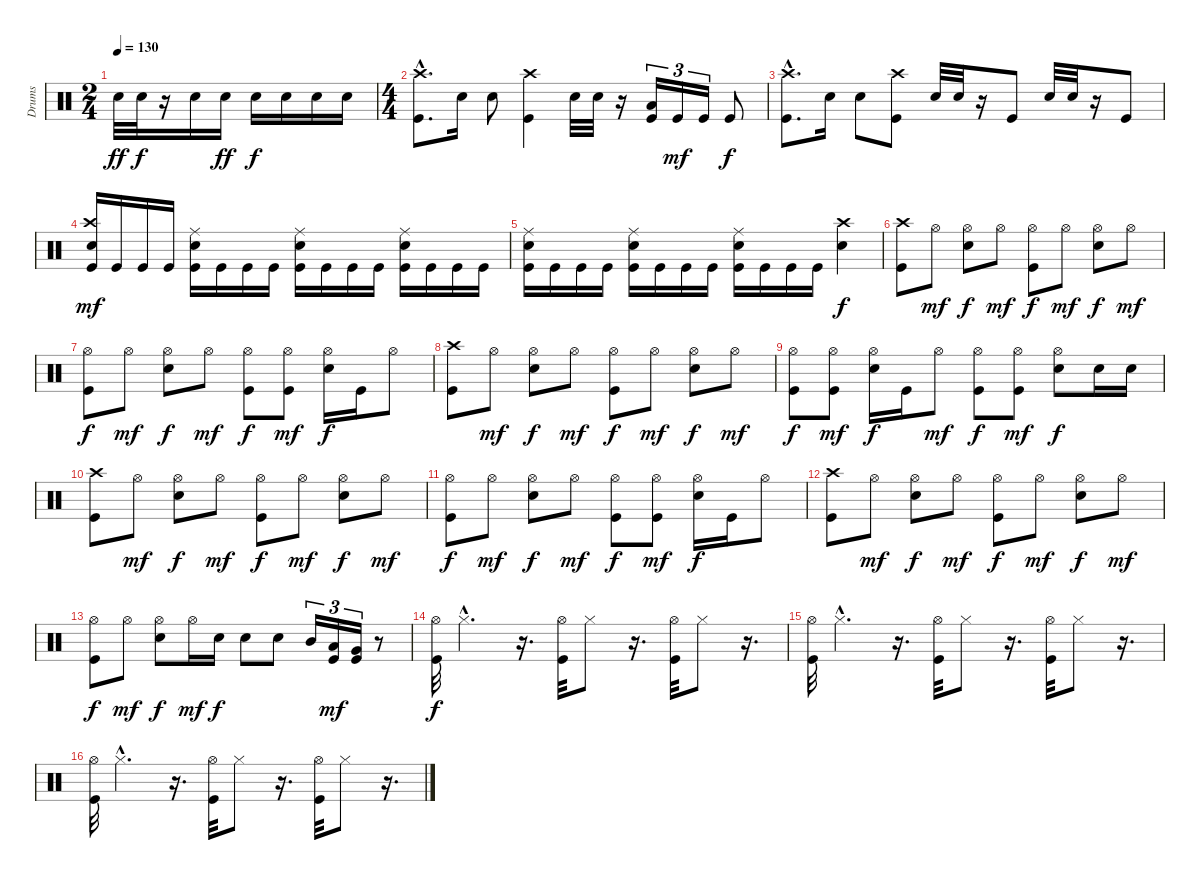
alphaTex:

\track ("Drums" "Drums") {instrument percussion}
\staff {score}
\articulation defaults
\ts (2 4)
\tempo 130
\clef neutral
\ks c "Snare (hit) 2".32{dy ff} "Snare (hit) 2".32{dy f}
r.16 "Snare (hit) 2".16 "Snare (hit) 2".16{dy ff} "Snare (hit) 2".16{dy f} "Snare (hit) 2".16 "Snare (hit) 2".16 "Snare (hit) 2".16 |
\ts (4 4)
("Crash high (hit)"{hac} "Kick (hit)"{hac}).8{d} "Snare (hit) 2".16 "Snare (hit) 2".8 ("Crash high (hit)" "Kick (hit)").4 "Snare (hit) 2".32 "Snare (hit) 2".32 r.16 ("Low Tom (hit)" "Kick (hit)").16{tu (3 2)} "Kick (hit)".16{tu (3 2) dy mf} "Kick (hit)".16{tu (3 2)} "Kick (hit)".8{dy f} |
("Crash high (hit)"{hac} "Kick (hit)"{hac}).8{d} "Snare (hit) 2".16 "Snare (hit) 2".8 ("Crash high (hit)" "Kick (hit)").8 "Snare (hit) 2".32 "Snare (hit) 2".32 r.16 "Kick (hit)".8 "Snare (hit) 2".32 "Snare (hit) 2".32 r.16 "Kick (hit)".8 |
("Crash high (hit)" "Snare (hit) 2" "Kick (hit)").16{dy mf} "Kick (hit)".16 "Kick (hit)".16 "Kick (hit)".16 ("Ride (middle)" "Snare (hit) 2" "Kick (hit)").16 "Kick (hit)".16 "Kick (hit)".16 "Kick (hit)".16 ("Ride (middle)" "Snare (hit) 2" "Kick (hit)").16 "Kick (hit)".16 "Kick (hit)".16 "Kick (hit)".16 ("Ride (middle)" "Snare (hit) 2" "Kick (hit)").16 "Kick (hit)".16 "Kick (hit)".16 "Kick (hit)".16 |
("Ride (middle)" "Snare (hit) 2" "Kick (hit)").16 "Kick (hit)".16 "Kick (hit)".16 "Kick (hit)".16 ("Ride (middle)" "Snare (hit) 2" "Kick (hit)").16 "Kick (hit)".16 "Kick (hit)".16 "Kick (hit)".16 ("Ride (middle)" "Snare (hit) 2" "Kick (hit)").16 "Kick (hit)".16 "Kick (hit)".16 "Kick (hit)".16 ("Crash high (hit)" "Snare (hit) 2").4{dy f} |
("Crash high (hit)" "Kick (hit)").8 "Hi-Hat (open)".8{dy mf} ("Hi-Hat (open)" "Snare (hit) 2").8{dy f} "Hi-Hat (open)".8{dy mf} ("Hi-Hat (open)" "Kick (hit)").8{dy f} "Hi-Hat (open)".8{dy mf} ("Hi-Hat (open)" "Snare (hit) 2").8{dy f} "Hi-Hat (open)".8{dy mf} |
("Hi-Hat (open)" "Kick (hit)").8{dy f} "Hi-Hat (open)".8{dy mf} ("Hi-Hat (open)" "Snare (hit) 2").8{dy f} "Hi-Hat (open)".8{dy mf} ("Hi-Hat (open)" "Kick (hit)").8{dy f} ("Hi-Hat (open)" "Kick (hit)").8{dy mf} ("Hi-Hat (open)" "Snare (hit) 2").16{dy f} "Kick (hit)".16 "Hi-Hat (open)".8 |
("Crash high (hit)" "Kick (hit)").8 "Hi-Hat (open)".8{dy mf} ("Hi-Hat (open)" "Snare (hit) 2").8{dy f} "Hi-Hat (open)".8{dy mf} ("Hi-Hat (open)" "Kick (hit)").8{dy f} "Hi-Hat (open)".8{dy mf} ("Hi-Hat (open)" "Snare (hit) 2").8{dy f} "Hi-Hat (open)".8{dy mf} |
("Hi-Hat (open)" "Kick (hit)").8{dy f} ("Hi-Hat (open)" "Kick (hit)").8{dy mf} ("Hi-Hat (open)" "Snare (hit) 2").16{dy f} "Kick (hit)".16 "Hi-Hat (open)".8{dy mf} ("Hi-Hat (open)" "Kick (hit)").8{dy f} ("Hi-Hat (open)" "Kick (hit)").8{dy mf} ("Hi-Hat (open)" "Snare (hit) 2").8{dy f} "Snare (hit) 2".16 "Snare (hit) 2".16 |
("Crash high (hit)" "Kick (hit)").8 "Hi-Hat (open)".8{dy mf} ("Hi-Hat (open)" "Snare (hit) 2").8{dy f} "Hi-Hat (open)".8{dy mf} ("Hi-Hat (open)" "Kick (hit)").8{dy f} "Hi-Hat (open)".8{dy mf} ("Hi-Hat (open)" "Snare (hit) 2").8{dy f} "Hi-Hat (open)".8{dy mf} |
("Hi-Hat (open)" "Kick (hit)").8{dy f} "Hi-Hat (open)".8{dy mf} ("Hi-Hat (open)" "Snare (hit) 2").8{dy f} "Hi-Hat (open)".8{dy mf} ("Hi-Hat (open)" "Kick (hit)").8{dy f} ("Hi-Hat (open)" "Kick (hit)").8{dy mf} ("Hi-Hat (open)" "Snare (hit) 2").16{dy f} "Kick (hit)".16 "Hi-Hat (open)".8 |
("Crash high (hit)" "Kick (hit)").8 "Hi-Hat (open)".8{dy mf} ("Hi-Hat (open)" "Snare (hit) 2").8{dy f} "Hi-Hat (open)".8{dy mf} ("Hi-Hat (open)" "Kick (hit)").8{dy f} "Hi-Hat (open)".8{dy mf} ("Hi-Hat (open)" "Snare (hit) 2").8{dy f} "Hi-Hat (open)".8{dy mf} |
("Hi-Hat (open)" "Kick (hit)").8{dy f} "Hi-Hat (open)".8{dy mf} ("Hi-Hat (open)" "Snare (hit) 2").8{dy f} "Hi-Hat (open)".16{dy mf} "Snare (hit) 2".16{dy f} "Snare (hit) 2".8 "Snare (hit) 2".8 "Mid Tom (hit)".16{tu (3 2)} ("Low Tom (hit)" "Kick (hit)").16{tu (3 2) dy mf} ("Very Low Tom (hit)" "Kick (hit)").16{tu (3 2)} r.8 |
("Hi-Hat (open)" "Kick (hit)").32{dy f} "Hi-Hat (closed)"{hac}.4{d} r.16{d} ("Hi-Hat (open)" "Kick (hit)").32 "Hi-Hat (closed)".8 r.16{d} ("Hi-Hat (open)" "Kick (hit)").32 "Hi-Hat (closed)".8 r.16{d} |
("Hi-Hat (open)" "Kick (hit)").32 "Hi-Hat (closed)"{hac}.4{d} r.16{d} ("Hi-Hat (open)" "Kick (hit)").32 "Hi-Hat (closed)".8 r.16{d} ("Hi-Hat (open)" "Kick (hit)").32 "Hi-Hat (closed)".8 r.16{d} |
("Hi-Hat (open)" "Kick (hit)").32 "Hi-Hat (closed)"{hac}.4{d} r.16{d} ("Hi-Hat (open)" "Kick (hit)").32 "Hi-Hat (closed)".8 r.16{d} ("Hi-Hat (open)" "Kick (hit)").32 "Hi-Hat (closed)".8 r.16{d}
